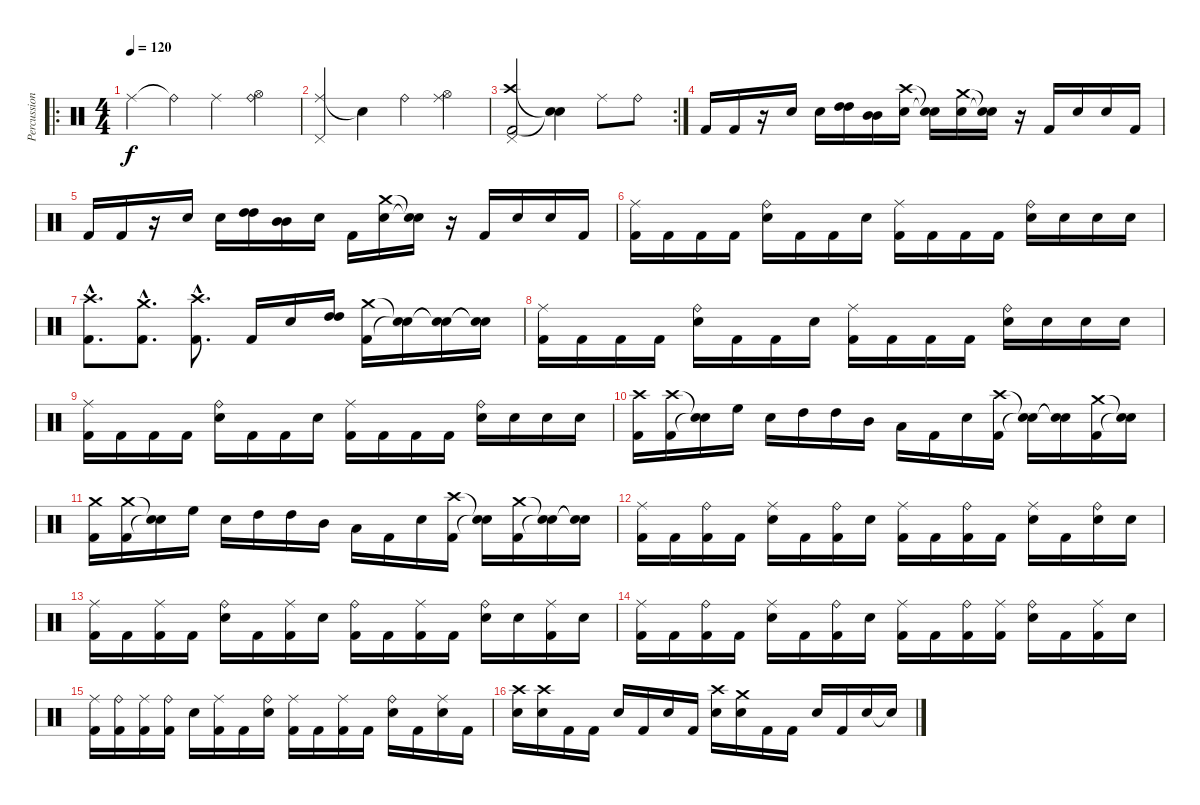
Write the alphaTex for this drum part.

\track ("Percussioni" "Percussion") {instrument percussion}
\staff {score}
\articulation defaults
\ro
\ts (4 4)
\tempo 120
\clef neutral
\ks c "Ride (middle)".4{dy f} "Ride (bell)"{t}.4 "Ride (middle)".4
("Ride (bell)" "Hi-Hat (open)").4 |
("Ride (middle)" "Pedal Hi-Hat (hit)").4 "Snare (hit)"{t}.4 "Ride (bell)".4 ("Ride (middle)" "Hi-Hat (open)").4 |
\rc 2
("Crash high (hit)" "Kick (hit) 2" "Pedal Hi-Hat (hit)").2 ("Snare (hit)"{t} "Snare (hit)"{t}).4 "Ride (middle)".8 "Ride (bell)".8 |
"Kick (hit) 2".16 "Kick (hit) 2".16 r.16 "Metronome (bell)".16 "Metronome (bell)".16 ("High Tom (hit)" "High Tom (hit)").16 ("Mid Tom (hit)" "Mid Tom (hit)").16 ("Crash high (hit)" "Metronome (bell)").16 ("Snare (hit)"{t} "Snare (hit)"{t}).16 ("Crash medium (hit)" "Metronome (bell)").16 ("Snare (hit)"{t} "Snare (hit)"{t}).16 r.16 "Kick (hit) 2".16 "Metronome (bell)".16 "Metronome (bell)".16 "Kick (hit) 2".16 |
"Kick (hit) 2".16 "Kick (hit) 2".16 r.16 "Metronome (bell)".16 "Metronome (bell)".16 ("High Tom (hit)" "High Tom (hit)").16 ("Mid Tom (hit)" "Mid Tom (hit)").16 "Metronome (bell)".16 "Kick (hit) 2".16 ("Crash medium (hit)" "Metronome (bell)").16 ("Snare (hit)"{t} "Snare (hit)"{t}).16 r.16 "Kick (hit) 2".16 "Metronome (bell)".16 "Metronome (bell)".16 "Kick (hit) 2".16 |
("Ride (middle)" "Kick (hit) 2").16 "Kick (hit) 2".16 "Kick (hit) 2".16 "Kick (hit) 2".16 ("Ride (bell)" "Metronome (bell)").16 "Kick (hit) 2".16 "Kick (hit) 2".16 "Metronome (bell)".16 ("Ride (middle)" "Kick (hit) 2").16 "Kick (hit) 2".16 "Kick (hit) 2".16 "Kick (hit) 2".16 ("Ride (bell)" "Metronome (bell)").16 "Metronome (bell)".16 "Metronome (bell)".16 "Metronome (bell)".16 |
("Crash high (hit)"{hac} "Kick (hit) 2"{hac}).8{d} ("Crash medium (hit)"{hac} "Kick (hit) 2"{hac}).8{d} ("Crash high (hit)"{hac} "Kick (hit) 2"{hac}).8{d} "Kick (hit) 2".16 "Metronome (bell)".16 ("High Tom (hit)" "High Tom (hit)").16 ("Crash medium (hit)" "Kick (hit) 2").16 ("Snare (hit)"{t} "Snare (hit)"{t}).16 ("Snare (hit)"{t} "Snare (hit)"{t}).16 ("Snare (hit)"{t} "Snare (hit)"{t}).16 |
("Ride (middle)" "Kick (hit) 2").16 "Kick (hit) 2".16 "Kick (hit) 2".16 "Kick (hit) 2".16 ("Ride (bell)" "Metronome (bell)").16 "Kick (hit) 2".16 "Kick (hit) 2".16 "Metronome (bell)".16 ("Ride (middle)" "Kick (hit) 2").16 "Kick (hit) 2".16 "Kick (hit) 2".16 "Kick (hit) 2".16 ("Ride (bell)" "Metronome (bell)").16 "Metronome (bell)".16 "Metronome (bell)".16 "Metronome (bell)".16 |
("Ride (middle)" "Kick (hit) 2").16 "Kick (hit) 2".16 "Kick (hit) 2".16 "Kick (hit) 2".16 ("Ride (bell)" "Metronome (bell)").16 "Kick (hit) 2".16 "Kick (hit) 2".16 "Metronome (bell)".16 ("Ride (middle)" "Kick (hit) 2").16 "Kick (hit) 2".16 "Kick (hit) 2".16 "Kick (hit) 2".16 ("Ride (bell)" "Metronome (bell)").16 "Metronome (bell)".16 "Metronome (bell)".16 "Metronome (bell)".16 |
("Crash high (hit)" "Kick (hit) 2").16 ("Crash high (hit)" "Kick (hit) 2").16 ("Snare (hit)"{t} "Snare (hit)"{t}).16 "High Floor Tom (hit)".16 "Metronome (bell)".16 "High Tom (hit)".16 "High Tom (hit)".16 "Mid Tom (hit)".16 "Low Tom (hit)".16 "Kick (hit) 2".16 "Metronome (bell)".16 ("Crash high (hit)" "Kick (hit) 2").16 ("Snare (hit)"{t} "Snare (hit)"{t}).16 ("Snare (hit)"{t} "Snare (hit)"{t}).16 ("Crash medium (hit)" "Kick (hit) 2").16 ("Snare (hit)"{t} "Snare (hit)"{t}).16 |
("Crash medium (hit)" "Kick (hit) 2").16 ("Crash medium (hit)" "Kick (hit) 2").16 ("Snare (hit)"{t} "Snare (hit)"{t}).16 "High Floor Tom (hit)".16 "Metronome (bell)".16 "High Tom (hit)".16 "High Tom (hit)".16 "Mid Tom (hit)".16 "Low Tom (hit)".16 "Kick (hit) 2".16 "Metronome (bell)".16 ("Crash high (hit)" "Kick (hit) 2").16 ("Snare (hit)"{t} "Snare (hit)"{t}).16 ("Crash medium (hit)" "Kick (hit) 2").16 ("Snare (hit)"{t} "Snare (hit)"{t}).16 ("Snare (hit)"{t} "Snare (hit)"{t}).16 |
("Ride (middle)" "Kick (hit) 2").16 "Kick (hit) 2".16 ("Ride (bell)" "Kick (hit) 2").16 "Kick (hit) 2".16 ("Ride (middle)" "Metronome (bell)").16 "Kick (hit) 2".16 ("Ride (bell)" "Kick (hit) 2").16 "Metronome (bell)".16 ("Ride (middle)" "Kick (hit) 2").16 "Kick (hit) 2".16 ("Ride (bell)" "Kick (hit) 2").16 "Kick (hit) 2".16 ("Ride (middle)" "Metronome (bell)").16 "Kick (hit) 2".16 ("Ride (bell)" "Metronome (bell)").16 "Metronome (bell)".16 |
("Ride (middle)" "Kick (hit) 2").16 "Kick (hit) 2".16 ("Ride (middle)" "Kick (hit) 2").16 "Kick (hit) 2".16 ("Ride (bell)" "Metronome (bell)").16 "Kick (hit) 2".16 ("Ride (middle)" "Kick (hit) 2").16 "Metronome (bell)".16 ("Ride (bell)" "Kick (hit) 2").16 "Kick (hit) 2".16 ("Ride (middle)" "Kick (hit) 2").16 "Kick (hit) 2".16 ("Ride (bell)" "Metronome (bell)").16 "Metronome (bell)".16 ("Ride (middle)" "Kick (hit) 2").16 "Metronome (bell)".16 |
("Ride (middle)" "Kick (hit) 2").16 "Kick (hit) 2".16 ("Ride (bell)" "Kick (hit) 2").16 "Kick (hit) 2".16 ("Ride (middle)" "Metronome (bell)").16 "Kick (hit) 2".16 ("Ride (bell)" "Kick (hit) 2").16 "Metronome (bell)".16 ("Ride (middle)" "Kick (hit) 2").16 "Kick (hit) 2".16 ("Ride (bell)" "Kick (hit) 2").16 ("Ride (middle)" "Kick (hit) 2").16 ("Ride (bell)" "Metronome (bell)").16 "Kick (hit) 2".16 ("Ride (middle)" "Kick (hit) 2").16 "Metronome (bell)".16 |
("Ride (middle)" "Kick (hit) 2").16 ("Ride (bell)" "Kick (hit) 2").16 ("Ride (middle)" "Kick (hit) 2").16 ("Ride (bell)" "Kick (hit) 2").16 "Metronome (bell)".16 ("Ride (middle)" "Kick (hit) 2").16 "Kick (hit) 2".16 ("Ride (bell)" "Metronome (bell)").16 ("Ride (middle)" "Kick (hit) 2").16 "Kick (hit) 2".16 ("Ride (middle)" "Kick (hit) 2").16 "Kick (hit) 2".16 ("Ride (bell)" "Metronome (bell)").16 "Kick (hit) 2".16 ("Ride (middle)" "Metronome (bell)").16 "Kick (hit) 2".16 |
("Crash high (hit)" "Metronome (bell)").16 ("Crash high (hit)" "Metronome (bell)").16 "Kick (hit) 2".16 "Kick (hit) 2".16 "Metronome (bell)".16 "Kick (hit) 2".16 "Metronome (bell)".16 "Kick (hit) 2".16 ("Crash high (hit)" "Metronome (bell)").16 ("Crash medium (hit)" "Metronome (bell)").16 "Kick (hit) 2".16 "Kick (hit) 2".16 "Metronome (bell)".16 "Kick (hit) 2".16 "Metronome (bell)".16 "Snare (hit)"{t}.16
